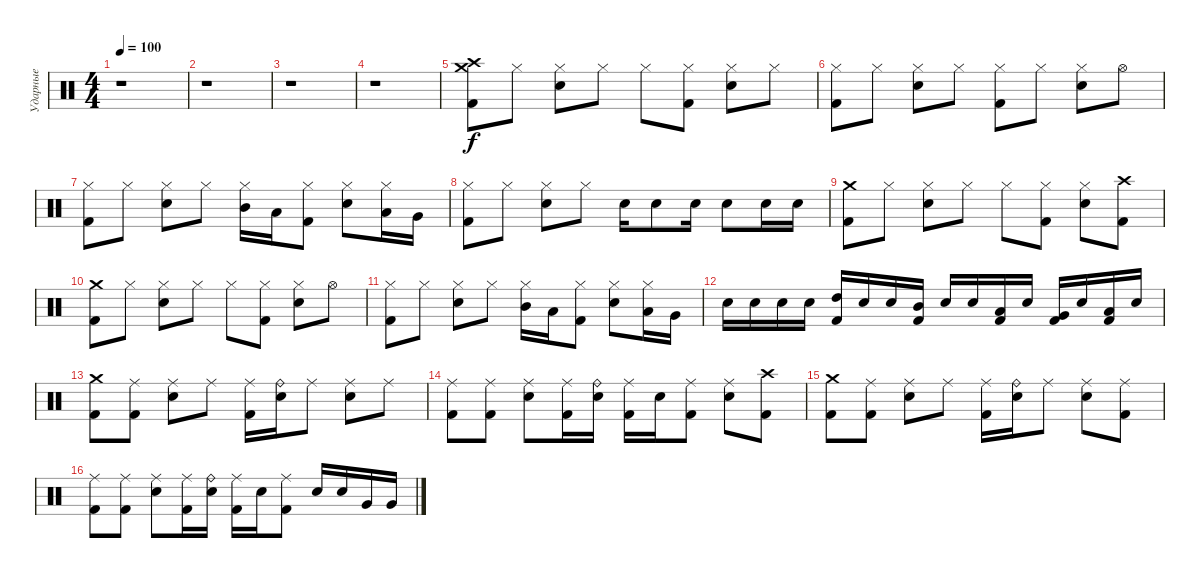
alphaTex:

\track ("Ударные" "Ударные") {instrument percussion}
\staff {score}
\articulation defaults
\ts (4 4)
\tempo 100
\clef neutral
\ks c
r.1{dy f} |
r.1 |
r.1 |
r.1 |
("Crash medium (hit)" "Crash high (hit)" "Kick (hit) 2").8 "Hi-Hat (closed)".8 ("Hi-Hat (closed)" "Electric Snare (hit)").8 "Hi-Hat (closed)".8 "Hi-Hat (closed)".8 ("Hi-Hat (closed)" "Kick (hit) 2").8 ("Hi-Hat (closed)" "Electric Snare (hit)").8 "Hi-Hat (closed)".8 |
("Hi-Hat (closed)" "Kick (hit) 2").8 "Hi-Hat (closed)".8 ("Hi-Hat (closed)" "Electric Snare (hit)").8 "Hi-Hat (closed)".8 ("Hi-Hat (closed)" "Kick (hit) 2").8 "Hi-Hat (closed)".8 ("Hi-Hat (closed)" "Electric Snare (hit)").8 "Hi-Hat (open)".8 |
("Hi-Hat (closed)" "Kick (hit) 2").8 "Hi-Hat (closed)".8 ("Hi-Hat (closed)" "Electric Snare (hit)").8 "Hi-Hat (closed)".8 ("Hi-Hat (closed)" "Mid Tom (hit)").16 "Low Tom (hit)".16 ("Hi-Hat (closed)" "Kick (hit) 2").8 ("Hi-Hat (closed)" "Electric Snare (hit)").8 ("Hi-Hat (closed)" "Low Tom (hit)").16 "Very Low Tom (hit)".16 |
("Hi-Hat (closed)" "Kick (hit) 2").8 "Hi-Hat (closed)".8 ("Hi-Hat (closed)" "Electric Snare (hit)").8 "Hi-Hat (closed)".8 "Electric Snare (hit)".16 "Electric Snare (hit)".8 "Electric Snare (hit)".16 "Electric Snare (hit)".8 "Electric Snare (hit)".16 "Electric Snare (hit)".16 |
("Crash medium (hit)" "Kick (hit) 2").8 "Hi-Hat (closed)".8 ("Hi-Hat (closed)" "Electric Snare (hit)").8 "Hi-Hat (closed)".8 "Hi-Hat (closed)".8 ("Hi-Hat (closed)" "Kick (hit) 2").8 ("Hi-Hat (closed)" "Electric Snare (hit)").8 ("Crash high (hit)" "Kick (hit) 2").8 |
("Crash medium (hit)" "Kick (hit) 2").8 "Hi-Hat (closed)".8 ("Hi-Hat (closed)" "Electric Snare (hit)").8 "Hi-Hat (closed)".8 "Hi-Hat (closed)".8 ("Hi-Hat (closed)" "Kick (hit) 2").8 ("Hi-Hat (closed)" "Electric Snare (hit)").8 "Hi-Hat (open)".8 |
("Hi-Hat (closed)" "Kick (hit) 2").8 "Hi-Hat (closed)".8 ("Hi-Hat (closed)" "Electric Snare (hit)").8 "Hi-Hat (closed)".8 ("Hi-Hat (closed)" "Mid Tom (hit)").16 "Low Tom (hit)".16 ("Hi-Hat (closed)" "Kick (hit) 2").8 ("Hi-Hat (closed)" "Electric Snare (hit)").8 ("Hi-Hat (closed)" "Low Tom (hit)").16 "Very Low Tom (hit)".16 |
"Electric Snare (hit)".16 "Electric Snare (hit)".16 "Electric Snare (hit)".16 "Electric Snare (hit)".16 ("High Tom (hit)" "Kick (hit) 2").16 "Electric Snare (hit)".16 "Electric Snare (hit)".16 ("Mid Tom (hit)" "Kick (hit) 2").16 "Electric Snare (hit)".16 "Electric Snare (hit)".16 ("Low Tom (hit)" "Kick (hit) 2").16 "Electric Snare (hit)".16 ("Very Low Tom (hit)" "Kick (hit) 2").16 "Electric Snare (hit)".16 ("Low Floor Tom (hit)" "Kick (hit) 2").16 "Electric Snare (hit)".16 |
("Crash medium (hit)" "Kick (hit) 2").8 ("Ride (middle)" "Kick (hit) 2").8 ("Ride (middle)" "Electric Snare (hit)").8 "Ride (middle)".8 ("Ride (middle)" "Kick (hit) 2").16 ("Ride (bell)" "Electric Snare (hit)").16 "Ride (middle)".8 ("Ride (middle)" "Electric Snare (hit)").8 "Ride (middle)".8 |
("Ride (middle)" "Kick (hit) 2").8 ("Ride (middle)" "Kick (hit) 2").8 ("Ride (middle)" "Electric Snare (hit)").8 ("Ride (middle)" "Kick (hit) 2").16 ("Ride (bell)" "Electric Snare (hit)").16 ("Ride (middle)" "Kick (hit) 2").16 "Electric Snare (hit)".16 ("Ride (middle)" "Kick (hit) 2").8 ("Ride (middle)" "Electric Snare (hit)").8 ("Crash high (hit)" "Kick (hit) 2").8 |
("Crash medium (hit)" "Kick (hit) 2").8 ("Ride (middle)" "Kick (hit) 2").8 ("Ride (middle)" "Electric Snare (hit)").8 "Ride (middle)".8 ("Ride (middle)" "Kick (hit) 2").16 ("Ride (bell)" "Electric Snare (hit)").16 "Ride (middle)".8 ("Ride (middle)" "Electric Snare (hit)").8 ("Ride (middle)" "Kick (hit) 2").8 |
("Ride (middle)" "Kick (hit) 2").8 ("Ride (middle)" "Kick (hit) 2").8 ("Ride (middle)" "Electric Snare (hit)").8 ("Ride (middle)" "Kick (hit) 2").16 ("Ride (bell)" "Electric Snare (hit)").16 ("Ride (middle)" "Kick (hit) 2").16 "Electric Snare (hit)".16 ("Ride (middle)" "Kick (hit) 2").8 "Electric Snare (hit)".16 "Electric Snare (hit)".16 "Very Low Tom (hit)".16 "Very Low Tom (hit)".16
